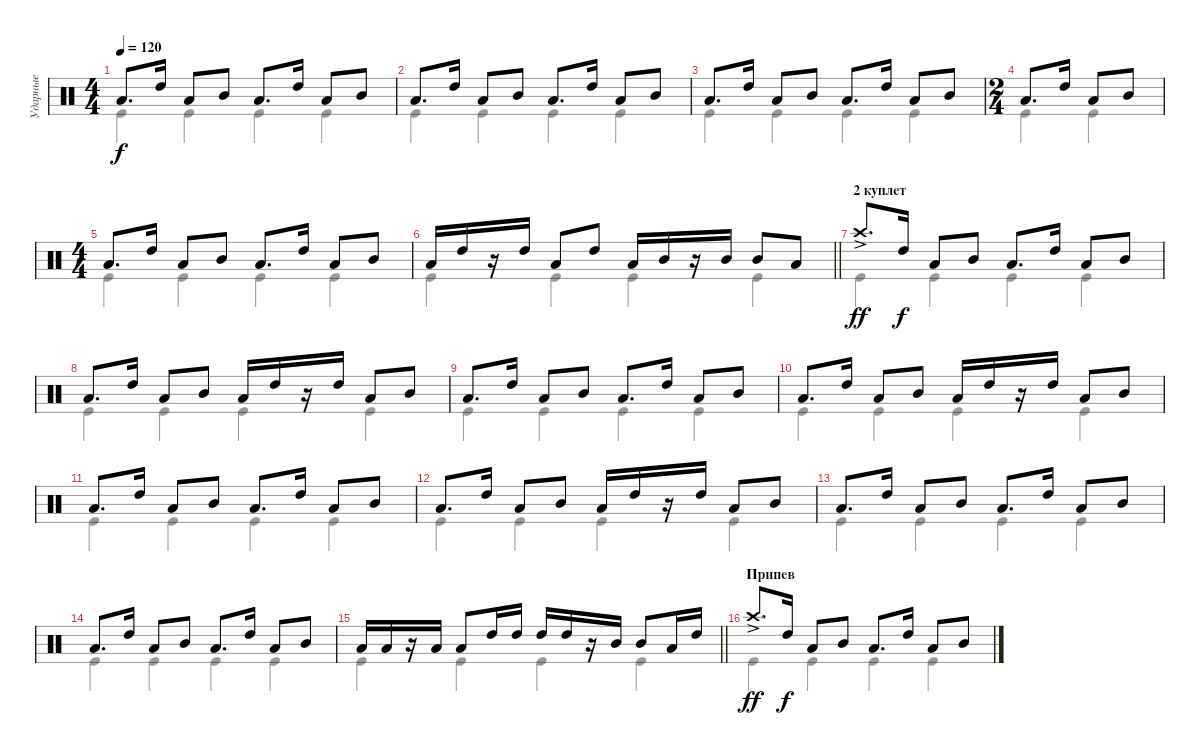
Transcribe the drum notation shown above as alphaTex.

\track ("Ударные" "Ударные") {instrument percussion}
\staff {score}
\articulation defaults
\voice
\ts (4 4)
\tempo 120
\clef neutral
\ks c "Low Tom (hit)".8{d dy f} "High Tom (hit)".16 "Low Tom (hit)".8 "Mid Tom (hit)".8 "Low Tom (hit)".8{d} "High Tom (hit)".16 "Low Tom (hit)".8 "Mid Tom (hit)".8
|
"Low Tom (hit)".8{d} "High Tom (hit)".16 "Low Tom (hit)".8 "Mid Tom (hit)".8 "Low Tom (hit)".8{d} "High Tom (hit)".16 "Low Tom (hit)".8 "Mid Tom (hit)".8 |
"Low Tom (hit)".8{d} "High Tom (hit)".16 "Low Tom (hit)".8 "Mid Tom (hit)".8 "Low Tom (hit)".8{d} "High Tom (hit)".16 "Low Tom (hit)".8 "Mid Tom (hit)".8 |
\ts (2 4)
"Low Tom (hit)".8{d} "High Tom (hit)".16 "Low Tom (hit)".8 "Mid Tom (hit)".8 |
\ts (4 4)
"Low Tom (hit)".8{d} "High Tom (hit)".16 "Low Tom (hit)".8 "Mid Tom (hit)".8 "Low Tom (hit)".8{d} "High Tom (hit)".16 "Low Tom (hit)".8 "Mid Tom (hit)".8 |
\barLineRight lightlight "Low Tom (hit)".16 "High Tom (hit)".16
r.16 "High Tom (hit)".16 "Low Tom (hit)".8 "High Tom (hit)".8 "Low Tom (hit)".16 "Mid Tom (hit)".16 r.16 "Mid Tom (hit)".16 "Mid Tom (hit)".8 "Low Tom (hit)".8 |
\section ("" "2 куплет")
"Crash high (hit)"{ac}.8{d dy ff} "High Tom (hit)".16{dy f} "Low Tom (hit)".8 "Mid Tom (hit)".8 "Low Tom (hit)".8{d} "High Tom (hit)".16 "Low Tom (hit)".8 "Mid Tom (hit)".8 |
"Low Tom (hit)".8{d} "High Tom (hit)".16 "Low Tom (hit)".8 "Mid Tom (hit)".8 "Low Tom (hit)".16 "High Tom (hit)".16 r.16 "High Tom (hit)".16 "Low Tom (hit)".8 "Mid Tom (hit)".8 |
"Low Tom (hit)".8{d} "High Tom (hit)".16 "Low Tom (hit)".8 "Mid Tom (hit)".8 "Low Tom (hit)".8{d} "High Tom (hit)".16 "Low Tom (hit)".8 "Mid Tom (hit)".8 |
"Low Tom (hit)".8{d} "High Tom (hit)".16 "Low Tom (hit)".8 "Mid Tom (hit)".8 "Low Tom (hit)".16 "High Tom (hit)".16 r.16 "High Tom (hit)".16 "Low Tom (hit)".8 "Mid Tom (hit)".8 |
"Low Tom (hit)".8{d} "High Tom (hit)".16 "Low Tom (hit)".8 "Mid Tom (hit)".8 "Low Tom (hit)".8{d} "High Tom (hit)".16 "Low Tom (hit)".8 "Mid Tom (hit)".8 |
"Low Tom (hit)".8{d} "High Tom (hit)".16 "Low Tom (hit)".8 "Mid Tom (hit)".8 "Low Tom (hit)".16 "High Tom (hit)".16 r.16 "High Tom (hit)".16 "Low Tom (hit)".8 "Mid Tom (hit)".8 |
"Low Tom (hit)".8{d} "High Tom (hit)".16 "Low Tom (hit)".8 "Mid Tom (hit)".8 "Low Tom (hit)".8{d} "High Tom (hit)".16 "Low Tom (hit)".8 "Mid Tom (hit)".8 |
"Low Tom (hit)".8{d} "High Tom (hit)".16 "Low Tom (hit)".8 "Mid Tom (hit)".8 "Low Tom (hit)".8{d} "High Tom (hit)".16 "Low Tom (hit)".8 "Mid Tom (hit)".8 |
\barLineRight lightlight "Low Tom (hit)".16 "Low Tom (hit)".16
r.16 "Low Tom (hit)".16 "Low Tom (hit)".8 "High Tom (hit)".16 "High Tom (hit)".16 "High Tom (hit)".16 "High Tom (hit)".16 r.16 "Mid Tom (hit)".16 "Mid Tom (hit)".8 "Low Tom (hit)".16 "High Tom (hit)".16 |
\section ("" "Припев")
"Crash high (hit)"{ac}.8{d dy ff} "High Tom (hit)".16{dy f} "Low Tom (hit)".8 "Mid Tom (hit)".8 "Low Tom (hit)".8{d} "High Tom (hit)".16 "Low Tom (hit)".8 "Mid Tom (hit)".8
\voice
\clef neutral
\ottava regular
\simile none
\ks c "Kick (hit)".4{dy f} "Kick (hit)".4 "Kick (hit)".4 "Kick (hit)".4
|
"Kick (hit)".4 "Kick (hit)".4 "Kick (hit)".4 "Kick (hit)".4 |
"Kick (hit)".4 "Kick (hit)".4 "Kick (hit)".4 "Kick (hit)".4 |
"Kick (hit)".4 "Kick (hit)".4 |
"Kick (hit)".4 "Kick (hit)".4 "Kick (hit)".4 "Kick (hit)".4 |
\barLineRight lightlight "Kick (hit)".4 "Kick (hit)".4 "Kick (hit)".4 "Kick (hit)".4
|
"Kick (hit)".4 "Kick (hit)".4 "Kick (hit)".4 "Kick (hit)".4 |
"Kick (hit)".4 "Kick (hit)".4 "Kick (hit)".4 "Kick (hit)".4 |
"Kick (hit)".4 "Kick (hit)".4 "Kick (hit)".4 "Kick (hit)".4 |
"Kick (hit)".4 "Kick (hit)".4 "Kick (hit)".4 "Kick (hit)".4 |
"Kick (hit)".4 "Kick (hit)".4 "Kick (hit)".4 "Kick (hit)".4 |
"Kick (hit)".4 "Kick (hit)".4 "Kick (hit)".4 "Kick (hit)".4 |
"Kick (hit)".4 "Kick (hit)".4 "Kick (hit)".4 "Kick (hit)".4 |
"Kick (hit)".4 "Kick (hit)".4 "Kick (hit)".4 "Kick (hit)".4 |
\barLineRight lightlight "Kick (hit)".4 "Kick (hit)".4 "Kick (hit)".4 "Kick (hit)".4
|
"Kick (hit)".4 "Kick (hit)".4 "Kick (hit)".4 "Kick (hit)".4
